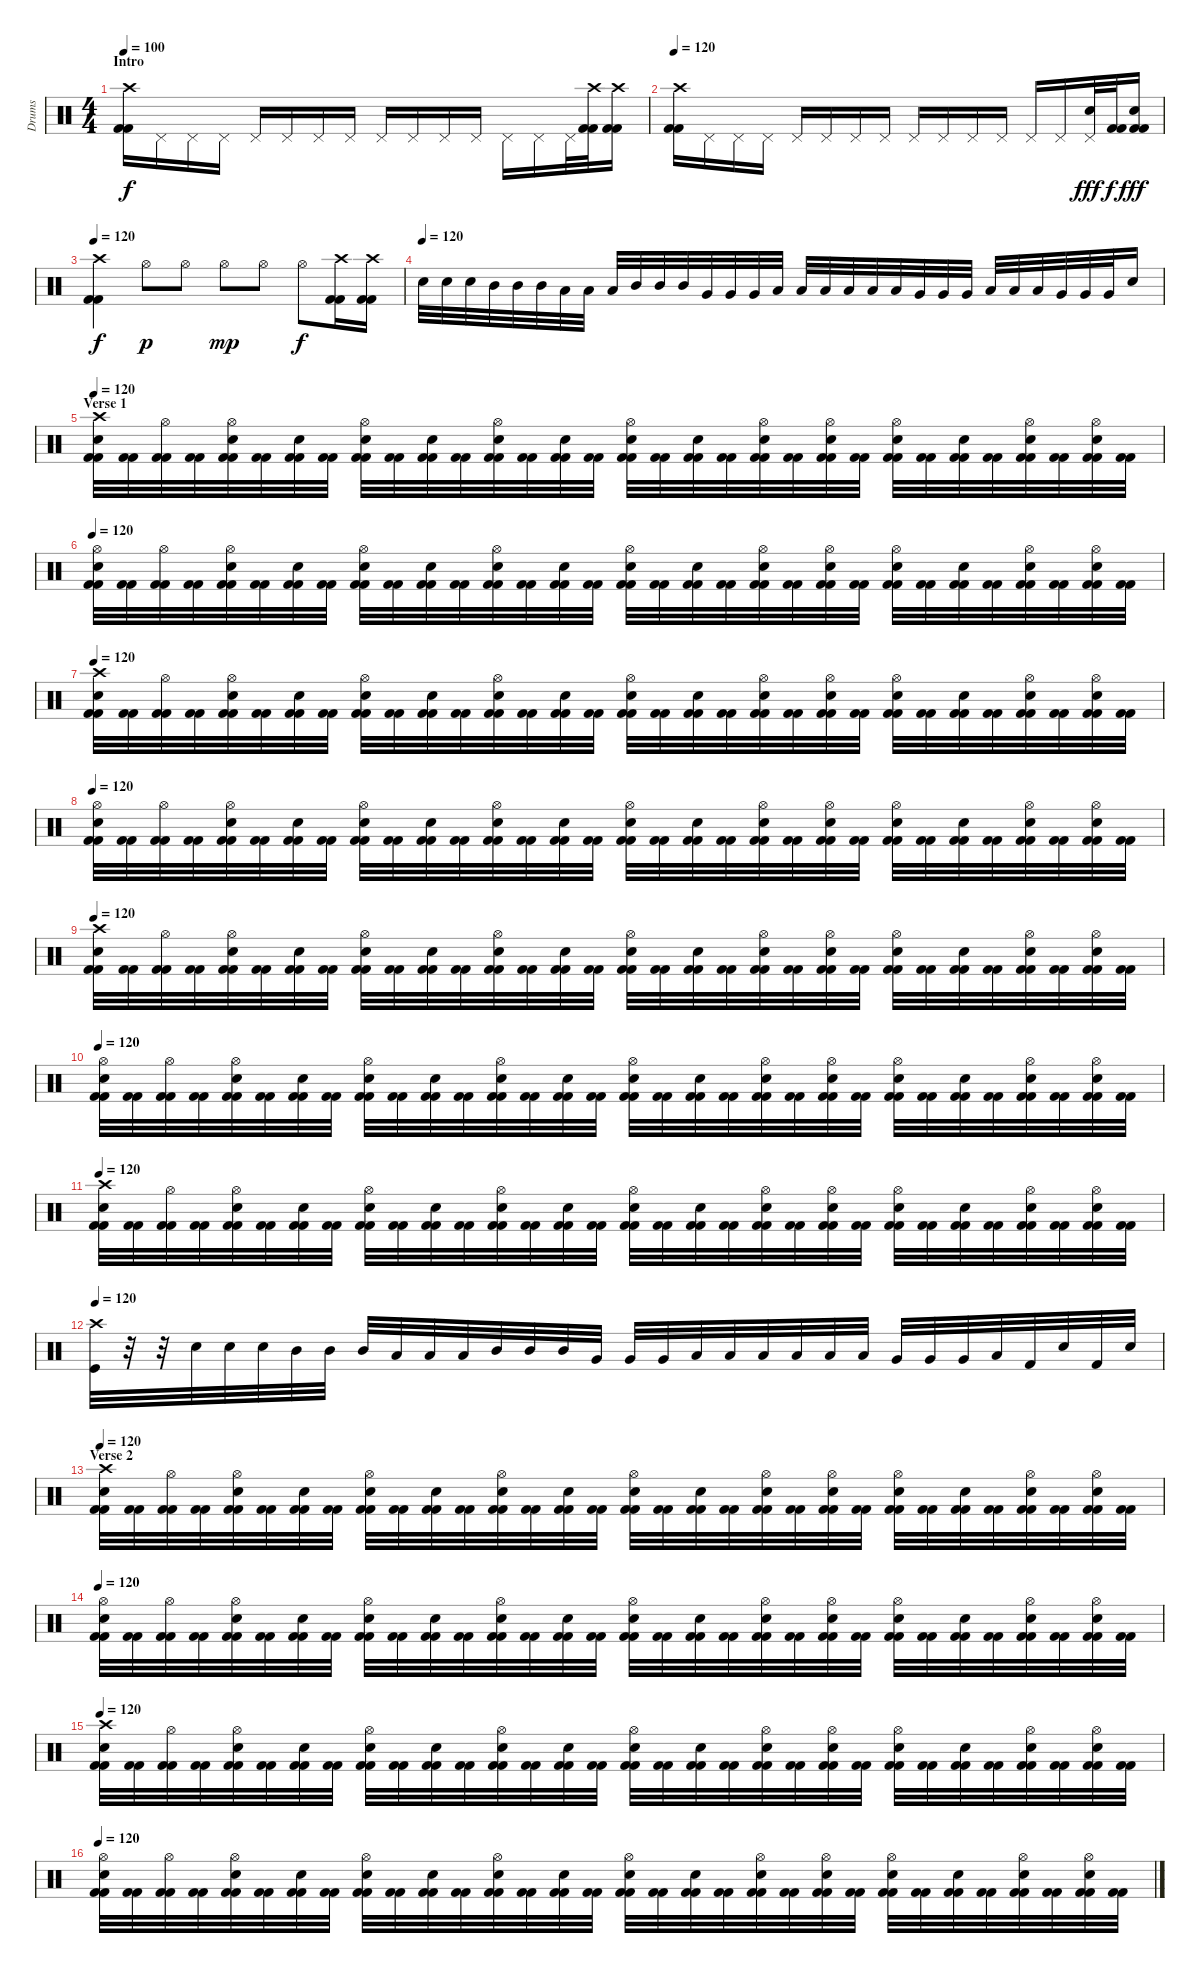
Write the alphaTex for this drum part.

\track ("Drums" "Drums") {instrument percussion}
\staff {score}
\articulation defaults
\ts (4 4)
\section ("" "Intro")
\tempo 100
\tempo 120
\tempo 100
\clef neutral
\ks c
("Crash high (hit)" "Kick (hit) 2" "Kick (hit) 2").16{dy f} "Pedal Hi-Hat (hit)".16 "Pedal Hi-Hat (hit)".16 "Pedal Hi-Hat (hit)".16 "Pedal Hi-Hat (hit)".16 "Pedal Hi-Hat (hit)".16 "Pedal Hi-Hat (hit)".16 "Pedal Hi-Hat (hit)".16 "Pedal Hi-Hat (hit)".16 "Pedal Hi-Hat (hit)".16 "Pedal Hi-Hat (hit)".16 "Pedal Hi-Hat (hit)".16 "Pedal Hi-Hat (hit)".16 "Pedal Hi-Hat (hit)".16 "Pedal Hi-Hat (hit)".32 ("Crash high (hit)" "Kick (hit) 2" "Kick (hit) 2").32 ("Crash high (hit)" "Kick (hit) 2" "Kick (hit) 2").16 |
\tempo 120
("Crash high (hit)" "Kick (hit) 2" "Kick (hit) 2").16 "Pedal Hi-Hat (hit)".16 "Pedal Hi-Hat (hit)".16 "Pedal Hi-Hat (hit)".16 "Pedal Hi-Hat (hit)".16 "Pedal Hi-Hat (hit)".16 "Pedal Hi-Hat (hit)".16 "Pedal Hi-Hat (hit)".16 "Pedal Hi-Hat (hit)".16 "Pedal Hi-Hat (hit)".16 "Pedal Hi-Hat (hit)".16 "Pedal Hi-Hat (hit)".16 "Pedal Hi-Hat (hit)".16 "Pedal Hi-Hat (hit)".16 ("Pedal Hi-Hat (hit)" "Electric Snare (hit)").32{dy fff} ("Kick (hit) 2" "Kick (hit) 2").32{dy f} ("Electric Snare (hit)" "Kick (hit) 2" "Kick (hit) 2").16{dy fff} |
\tempo 120
("Crash high (hit)" "Kick (hit) 2" "Kick (hit) 2").4{dy f} "Hi-Hat (open)".8{dy p} "Hi-Hat (open)".8 "Hi-Hat (open)".8{dy mp} "Hi-Hat (open)".8 "Hi-Hat (open)".8{dy f} ("Crash high (hit)" "Kick (hit) 2" "Kick (hit) 2").16 ("Crash high (hit)" "Kick (hit) 2" "Kick (hit) 2").16 |
\tempo (120)
"Electric Snare (hit)".32 "Electric Snare (hit)".32 "Electric Snare (hit)".32 "Mid Tom (hit)".32 "Mid Tom (hit)".32 "Mid Tom (hit)".32 "Low Tom (hit)".32 "Low Tom (hit)".32 "Low Tom (hit)".32 "Mid Tom (hit)".32 "Mid Tom (hit)".32 "Mid Tom (hit)".32 "Very Low Tom (hit)".32 "Very Low Tom (hit)".32 "Very Low Tom (hit)".32 "Low Tom (hit)".32 "Low Tom (hit)".32 "Low Tom (hit)".32 "Low Floor Tom (hit)".32 "Low Floor Tom (hit)".32 "Low Floor Tom (hit)".32 "Very Low Tom (hit)".32 "Very Low Tom (hit)".32 "Very Low Tom (hit)".32 "Low Floor Tom (hit)".32 "Low Floor Tom (hit)".32 "Low Floor Tom (hit)".32 "Very Low Tom (hit)".32 "Very Low Tom (hit)".32 "Very Low Tom (hit)".32 "Electric Snare (hit)".16 |
\section ("" "Verse 1")
\tempo 120
("Crash high (hit)" "Electric Snare (hit)" "Kick (hit) 2" "Kick (hit) 2").32 ("Kick (hit) 2" "Kick (hit) 2").32 ("Hi-Hat (open)" "Kick (hit) 2" "Kick (hit) 2").32 ("Kick (hit) 2" "Kick (hit) 2").32 ("Hi-Hat (open)" "Electric Snare (hit)" "Kick (hit) 2" "Kick (hit) 2").32 ("Kick (hit) 2" "Kick (hit) 2").32 ("Electric Snare (hit)" "Kick (hit) 2" "Kick (hit) 2").32 ("Kick (hit) 2" "Kick (hit) 2").32 ("Hi-Hat (open)" "Electric Snare (hit)" "Kick (hit) 2" "Kick (hit) 2").32 ("Kick (hit) 2" "Kick (hit) 2").32 ("Electric Snare (hit)" "Kick (hit) 2" "Kick (hit) 2").32 ("Kick (hit) 2" "Kick (hit) 2").32 ("Hi-Hat (open)" "Electric Snare (hit)" "Kick (hit) 2" "Kick (hit) 2").32 ("Kick (hit) 2" "Kick (hit) 2").32 ("Electric Snare (hit)" "Kick (hit) 2" "Kick (hit) 2").32 ("Kick (hit) 2" "Kick (hit) 2").32 ("Hi-Hat (open)" "Electric Snare (hit)" "Kick (hit) 2" "Kick (hit) 2").32 ("Kick (hit) 2" "Kick (hit) 2").32 ("Electric Snare (hit)" "Kick (hit) 2" "Kick (hit) 2").32 ("Kick (hit) 2" "Kick (hit) 2").32 ("Hi-Hat (open)" "Electric Snare (hit)" "Kick (hit) 2" "Kick (hit) 2").32 ("Kick (hit) 2" "Kick (hit) 2").32 ("Hi-Hat (open)" "Electric Snare (hit)" "Kick (hit) 2" "Kick (hit) 2").32 ("Kick (hit) 2" "Kick (hit) 2").32 ("Hi-Hat (open)" "Electric Snare (hit)" "Kick (hit) 2" "Kick (hit) 2").32 ("Kick (hit) 2" "Kick (hit) 2").32 ("Electric Snare (hit)" "Kick (hit) 2" "Kick (hit) 2").32 ("Kick (hit) 2" "Kick (hit) 2").32 ("Hi-Hat (open)" "Electric Snare (hit)" "Kick (hit) 2" "Kick (hit) 2").32 ("Kick (hit) 2" "Kick (hit) 2").32 ("Hi-Hat (open)" "Electric Snare (hit)" "Kick (hit) 2" "Kick (hit) 2").32 ("Kick (hit) 2" "Kick (hit) 2").32 |
\tempo 120
("Hi-Hat (open)" "Electric Snare (hit)" "Kick (hit) 2" "Kick (hit) 2").32 ("Kick (hit) 2" "Kick (hit) 2").32 ("Hi-Hat (open)" "Kick (hit) 2" "Kick (hit) 2").32 ("Kick (hit) 2" "Kick (hit) 2").32 ("Hi-Hat (open)" "Electric Snare (hit)" "Kick (hit) 2" "Kick (hit) 2").32 ("Kick (hit) 2" "Kick (hit) 2").32 ("Electric Snare (hit)" "Kick (hit) 2" "Kick (hit) 2").32 ("Kick (hit) 2" "Kick (hit) 2").32 ("Hi-Hat (open)" "Electric Snare (hit)" "Kick (hit) 2" "Kick (hit) 2").32 ("Kick (hit) 2" "Kick (hit) 2").32 ("Electric Snare (hit)" "Kick (hit) 2" "Kick (hit) 2").32 ("Kick (hit) 2" "Kick (hit) 2").32 ("Hi-Hat (open)" "Electric Snare (hit)" "Kick (hit) 2" "Kick (hit) 2").32 ("Kick (hit) 2" "Kick (hit) 2").32 ("Electric Snare (hit)" "Kick (hit) 2" "Kick (hit) 2").32 ("Kick (hit) 2" "Kick (hit) 2").32 ("Hi-Hat (open)" "Electric Snare (hit)" "Kick (hit) 2" "Kick (hit) 2").32 ("Kick (hit) 2" "Kick (hit) 2").32 ("Electric Snare (hit)" "Kick (hit) 2" "Kick (hit) 2").32 ("Kick (hit) 2" "Kick (hit) 2").32 ("Hi-Hat (open)" "Electric Snare (hit)" "Kick (hit) 2" "Kick (hit) 2").32 ("Kick (hit) 2" "Kick (hit) 2").32 ("Hi-Hat (open)" "Electric Snare (hit)" "Kick (hit) 2" "Kick (hit) 2").32 ("Kick (hit) 2" "Kick (hit) 2").32 ("Hi-Hat (open)" "Electric Snare (hit)" "Kick (hit) 2" "Kick (hit) 2").32 ("Kick (hit) 2" "Kick (hit) 2").32 ("Electric Snare (hit)" "Kick (hit) 2" "Kick (hit) 2").32 ("Kick (hit) 2" "Kick (hit) 2").32 ("Hi-Hat (open)" "Electric Snare (hit)" "Kick (hit) 2" "Kick (hit) 2").32 ("Kick (hit) 2" "Kick (hit) 2").32 ("Hi-Hat (open)" "Electric Snare (hit)" "Kick (hit) 2" "Kick (hit) 2").32 ("Kick (hit) 2" "Kick (hit) 2").32 |
\tempo 120
("Crash high (hit)" "Electric Snare (hit)" "Kick (hit) 2" "Kick (hit) 2").32 ("Kick (hit) 2" "Kick (hit) 2").32 ("Hi-Hat (open)" "Kick (hit) 2" "Kick (hit) 2").32 ("Kick (hit) 2" "Kick (hit) 2").32 ("Hi-Hat (open)" "Electric Snare (hit)" "Kick (hit) 2" "Kick (hit) 2").32 ("Kick (hit) 2" "Kick (hit) 2").32 ("Electric Snare (hit)" "Kick (hit) 2" "Kick (hit) 2").32 ("Kick (hit) 2" "Kick (hit) 2").32 ("Hi-Hat (open)" "Electric Snare (hit)" "Kick (hit) 2" "Kick (hit) 2").32 ("Kick (hit) 2" "Kick (hit) 2").32 ("Electric Snare (hit)" "Kick (hit) 2" "Kick (hit) 2").32 ("Kick (hit) 2" "Kick (hit) 2").32 ("Hi-Hat (open)" "Electric Snare (hit)" "Kick (hit) 2" "Kick (hit) 2").32 ("Kick (hit) 2" "Kick (hit) 2").32 ("Electric Snare (hit)" "Kick (hit) 2" "Kick (hit) 2").32 ("Kick (hit) 2" "Kick (hit) 2").32 ("Hi-Hat (open)" "Electric Snare (hit)" "Kick (hit) 2" "Kick (hit) 2").32 ("Kick (hit) 2" "Kick (hit) 2").32 ("Electric Snare (hit)" "Kick (hit) 2" "Kick (hit) 2").32 ("Kick (hit) 2" "Kick (hit) 2").32 ("Hi-Hat (open)" "Electric Snare (hit)" "Kick (hit) 2" "Kick (hit) 2").32 ("Kick (hit) 2" "Kick (hit) 2").32 ("Hi-Hat (open)" "Electric Snare (hit)" "Kick (hit) 2" "Kick (hit) 2").32 ("Kick (hit) 2" "Kick (hit) 2").32 ("Hi-Hat (open)" "Electric Snare (hit)" "Kick (hit) 2" "Kick (hit) 2").32 ("Kick (hit) 2" "Kick (hit) 2").32 ("Electric Snare (hit)" "Kick (hit) 2" "Kick (hit) 2").32 ("Kick (hit) 2" "Kick (hit) 2").32 ("Hi-Hat (open)" "Electric Snare (hit)" "Kick (hit) 2" "Kick (hit) 2").32 ("Kick (hit) 2" "Kick (hit) 2").32 ("Hi-Hat (open)" "Electric Snare (hit)" "Kick (hit) 2" "Kick (hit) 2").32 ("Kick (hit) 2" "Kick (hit) 2").32 |
\tempo 120
("Hi-Hat (open)" "Electric Snare (hit)" "Kick (hit) 2" "Kick (hit) 2").32 ("Kick (hit) 2" "Kick (hit) 2").32 ("Hi-Hat (open)" "Kick (hit) 2" "Kick (hit) 2").32 ("Kick (hit) 2" "Kick (hit) 2").32 ("Hi-Hat (open)" "Electric Snare (hit)" "Kick (hit) 2" "Kick (hit) 2").32 ("Kick (hit) 2" "Kick (hit) 2").32 ("Electric Snare (hit)" "Kick (hit) 2" "Kick (hit) 2").32 ("Kick (hit) 2" "Kick (hit) 2").32 ("Hi-Hat (open)" "Electric Snare (hit)" "Kick (hit) 2" "Kick (hit) 2").32 ("Kick (hit) 2" "Kick (hit) 2").32 ("Electric Snare (hit)" "Kick (hit) 2" "Kick (hit) 2").32 ("Kick (hit) 2" "Kick (hit) 2").32 ("Hi-Hat (open)" "Electric Snare (hit)" "Kick (hit) 2" "Kick (hit) 2").32 ("Kick (hit) 2" "Kick (hit) 2").32 ("Electric Snare (hit)" "Kick (hit) 2" "Kick (hit) 2").32 ("Kick (hit) 2" "Kick (hit) 2").32 ("Hi-Hat (open)" "Electric Snare (hit)" "Kick (hit) 2" "Kick (hit) 2").32 ("Kick (hit) 2" "Kick (hit) 2").32 ("Electric Snare (hit)" "Kick (hit) 2" "Kick (hit) 2").32 ("Kick (hit) 2" "Kick (hit) 2").32 ("Hi-Hat (open)" "Electric Snare (hit)" "Kick (hit) 2" "Kick (hit) 2").32 ("Kick (hit) 2" "Kick (hit) 2").32 ("Hi-Hat (open)" "Electric Snare (hit)" "Kick (hit) 2" "Kick (hit) 2").32 ("Kick (hit) 2" "Kick (hit) 2").32 ("Hi-Hat (open)" "Electric Snare (hit)" "Kick (hit) 2" "Kick (hit) 2").32 ("Kick (hit) 2" "Kick (hit) 2").32 ("Electric Snare (hit)" "Kick (hit) 2" "Kick (hit) 2").32 ("Kick (hit) 2" "Kick (hit) 2").32 ("Hi-Hat (open)" "Electric Snare (hit)" "Kick (hit) 2" "Kick (hit) 2").32 ("Kick (hit) 2" "Kick (hit) 2").32 ("Hi-Hat (open)" "Electric Snare (hit)" "Kick (hit) 2" "Kick (hit) 2").32 ("Kick (hit) 2" "Kick (hit) 2").32 |
\tempo 120
("Crash high (hit)" "Electric Snare (hit)" "Kick (hit) 2" "Kick (hit) 2").32 ("Kick (hit) 2" "Kick (hit) 2").32 ("Hi-Hat (open)" "Kick (hit) 2" "Kick (hit) 2").32 ("Kick (hit) 2" "Kick (hit) 2").32 ("Hi-Hat (open)" "Electric Snare (hit)" "Kick (hit) 2" "Kick (hit) 2").32 ("Kick (hit) 2" "Kick (hit) 2").32 ("Electric Snare (hit)" "Kick (hit) 2" "Kick (hit) 2").32 ("Kick (hit) 2" "Kick (hit) 2").32 ("Hi-Hat (open)" "Electric Snare (hit)" "Kick (hit) 2" "Kick (hit) 2").32 ("Kick (hit) 2" "Kick (hit) 2").32 ("Electric Snare (hit)" "Kick (hit) 2" "Kick (hit) 2").32 ("Kick (hit) 2" "Kick (hit) 2").32 ("Hi-Hat (open)" "Electric Snare (hit)" "Kick (hit) 2" "Kick (hit) 2").32 ("Kick (hit) 2" "Kick (hit) 2").32 ("Electric Snare (hit)" "Kick (hit) 2" "Kick (hit) 2").32 ("Kick (hit) 2" "Kick (hit) 2").32 ("Hi-Hat (open)" "Electric Snare (hit)" "Kick (hit) 2" "Kick (hit) 2").32 ("Kick (hit) 2" "Kick (hit) 2").32 ("Electric Snare (hit)" "Kick (hit) 2" "Kick (hit) 2").32 ("Kick (hit) 2" "Kick (hit) 2").32 ("Hi-Hat (open)" "Electric Snare (hit)" "Kick (hit) 2" "Kick (hit) 2").32 ("Kick (hit) 2" "Kick (hit) 2").32 ("Hi-Hat (open)" "Electric Snare (hit)" "Kick (hit) 2" "Kick (hit) 2").32 ("Kick (hit) 2" "Kick (hit) 2").32 ("Hi-Hat (open)" "Electric Snare (hit)" "Kick (hit) 2" "Kick (hit) 2").32 ("Kick (hit) 2" "Kick (hit) 2").32 ("Electric Snare (hit)" "Kick (hit) 2" "Kick (hit) 2").32 ("Kick (hit) 2" "Kick (hit) 2").32 ("Hi-Hat (open)" "Electric Snare (hit)" "Kick (hit) 2" "Kick (hit) 2").32 ("Kick (hit) 2" "Kick (hit) 2").32 ("Hi-Hat (open)" "Electric Snare (hit)" "Kick (hit) 2" "Kick (hit) 2").32 ("Kick (hit) 2" "Kick (hit) 2").32 |
\tempo 120
("Hi-Hat (open)" "Electric Snare (hit)" "Kick (hit) 2" "Kick (hit) 2").32 ("Kick (hit) 2" "Kick (hit) 2").32 ("Hi-Hat (open)" "Kick (hit) 2" "Kick (hit) 2").32 ("Kick (hit) 2" "Kick (hit) 2").32 ("Hi-Hat (open)" "Electric Snare (hit)" "Kick (hit) 2" "Kick (hit) 2").32 ("Kick (hit) 2" "Kick (hit) 2").32 ("Electric Snare (hit)" "Kick (hit) 2" "Kick (hit) 2").32 ("Kick (hit) 2" "Kick (hit) 2").32 ("Hi-Hat (open)" "Electric Snare (hit)" "Kick (hit) 2" "Kick (hit) 2").32 ("Kick (hit) 2" "Kick (hit) 2").32 ("Electric Snare (hit)" "Kick (hit) 2" "Kick (hit) 2").32 ("Kick (hit) 2" "Kick (hit) 2").32 ("Hi-Hat (open)" "Electric Snare (hit)" "Kick (hit) 2" "Kick (hit) 2").32 ("Kick (hit) 2" "Kick (hit) 2").32 ("Electric Snare (hit)" "Kick (hit) 2" "Kick (hit) 2").32 ("Kick (hit) 2" "Kick (hit) 2").32 ("Hi-Hat (open)" "Electric Snare (hit)" "Kick (hit) 2" "Kick (hit) 2").32 ("Kick (hit) 2" "Kick (hit) 2").32 ("Electric Snare (hit)" "Kick (hit) 2" "Kick (hit) 2").32 ("Kick (hit) 2" "Kick (hit) 2").32 ("Hi-Hat (open)" "Electric Snare (hit)" "Kick (hit) 2" "Kick (hit) 2").32 ("Kick (hit) 2" "Kick (hit) 2").32 ("Hi-Hat (open)" "Electric Snare (hit)" "Kick (hit) 2" "Kick (hit) 2").32 ("Kick (hit) 2" "Kick (hit) 2").32 ("Hi-Hat (open)" "Electric Snare (hit)" "Kick (hit) 2" "Kick (hit) 2").32 ("Kick (hit) 2" "Kick (hit) 2").32 ("Electric Snare (hit)" "Kick (hit) 2" "Kick (hit) 2").32 ("Kick (hit) 2" "Kick (hit) 2").32 ("Hi-Hat (open)" "Electric Snare (hit)" "Kick (hit) 2" "Kick (hit) 2").32 ("Kick (hit) 2" "Kick (hit) 2").32 ("Hi-Hat (open)" "Electric Snare (hit)" "Kick (hit) 2" "Kick (hit) 2").32 ("Kick (hit) 2" "Kick (hit) 2").32 |
\tempo 120
("Crash high (hit)" "Electric Snare (hit)" "Kick (hit) 2" "Kick (hit) 2").32 ("Kick (hit) 2" "Kick (hit) 2").32 ("Hi-Hat (open)" "Kick (hit) 2" "Kick (hit) 2").32 ("Kick (hit) 2" "Kick (hit) 2").32 ("Hi-Hat (open)" "Electric Snare (hit)" "Kick (hit) 2" "Kick (hit) 2").32 ("Kick (hit) 2" "Kick (hit) 2").32 ("Electric Snare (hit)" "Kick (hit) 2" "Kick (hit) 2").32 ("Kick (hit) 2" "Kick (hit) 2").32 ("Hi-Hat (open)" "Electric Snare (hit)" "Kick (hit) 2" "Kick (hit) 2").32 ("Kick (hit) 2" "Kick (hit) 2").32 ("Electric Snare (hit)" "Kick (hit) 2" "Kick (hit) 2").32 ("Kick (hit) 2" "Kick (hit) 2").32 ("Hi-Hat (open)" "Electric Snare (hit)" "Kick (hit) 2" "Kick (hit) 2").32 ("Kick (hit) 2" "Kick (hit) 2").32 ("Electric Snare (hit)" "Kick (hit) 2" "Kick (hit) 2").32 ("Kick (hit) 2" "Kick (hit) 2").32 ("Hi-Hat (open)" "Electric Snare (hit)" "Kick (hit) 2" "Kick (hit) 2").32 ("Kick (hit) 2" "Kick (hit) 2").32 ("Electric Snare (hit)" "Kick (hit) 2" "Kick (hit) 2").32 ("Kick (hit) 2" "Kick (hit) 2").32 ("Hi-Hat (open)" "Electric Snare (hit)" "Kick (hit) 2" "Kick (hit) 2").32 ("Kick (hit) 2" "Kick (hit) 2").32 ("Hi-Hat (open)" "Electric Snare (hit)" "Kick (hit) 2" "Kick (hit) 2").32 ("Kick (hit) 2" "Kick (hit) 2").32 ("Hi-Hat (open)" "Electric Snare (hit)" "Kick (hit) 2" "Kick (hit) 2").32 ("Kick (hit) 2" "Kick (hit) 2").32 ("Electric Snare (hit)" "Kick (hit) 2" "Kick (hit) 2").32 ("Kick (hit) 2" "Kick (hit) 2").32 ("Hi-Hat (open)" "Electric Snare (hit)" "Kick (hit) 2" "Kick (hit) 2").32 ("Kick (hit) 2" "Kick (hit) 2").32 ("Hi-Hat (open)" "Electric Snare (hit)" "Kick (hit) 2" "Kick (hit) 2").32 ("Kick (hit) 2" "Kick (hit) 2").32 |
\tempo 120
("Crash high (hit)" "Kick (hit)").32 r.32 r.32 "Electric Snare (hit)".32 "Electric Snare (hit)".32 "Electric Snare (hit)".32 "Mid Tom (hit)".32 "Mid Tom (hit)".32 "Mid Tom (hit)".32 "Low Tom (hit)".32 "Low Tom (hit)".32 "Low Tom (hit)".32 "Mid Tom (hit)".32 "Mid Tom (hit)".32 "Mid Tom (hit)".32 "Very Low Tom (hit)".32 "Very Low Tom (hit)".32 "Very Low Tom (hit)".32 "Low Tom (hit)".32 "Low Tom (hit)".32 "Low Tom (hit)".32 "Low Floor Tom (hit)".32 "Low Floor Tom (hit)".32 "Low Floor Tom (hit)".32 "Very Low Tom (hit)".32 "Very Low Tom (hit)".32 "Very Low Tom (hit)".32 "Low Floor Tom (hit)".32 "Kick (hit) 2".32 "Electric Snare (hit)".32 "Kick (hit) 2".32 "Electric Snare (hit)".32 |
\section ("" "Verse 2")
\tempo 120
("Crash high (hit)" "Electric Snare (hit)" "Kick (hit) 2" "Kick (hit) 2").32 ("Kick (hit) 2" "Kick (hit) 2").32 ("Hi-Hat (open)" "Kick (hit) 2" "Kick (hit) 2").32 ("Kick (hit) 2" "Kick (hit) 2").32 ("Hi-Hat (open)" "Electric Snare (hit)" "Kick (hit) 2" "Kick (hit) 2").32 ("Kick (hit) 2" "Kick (hit) 2").32 ("Electric Snare (hit)" "Kick (hit) 2" "Kick (hit) 2").32 ("Kick (hit) 2" "Kick (hit) 2").32 ("Hi-Hat (open)" "Electric Snare (hit)" "Kick (hit) 2" "Kick (hit) 2").32 ("Kick (hit) 2" "Kick (hit) 2").32 ("Electric Snare (hit)" "Kick (hit) 2" "Kick (hit) 2").32 ("Kick (hit) 2" "Kick (hit) 2").32 ("Hi-Hat (open)" "Electric Snare (hit)" "Kick (hit) 2" "Kick (hit) 2").32 ("Kick (hit) 2" "Kick (hit) 2").32 ("Electric Snare (hit)" "Kick (hit) 2" "Kick (hit) 2").32 ("Kick (hit) 2" "Kick (hit) 2").32 ("Hi-Hat (open)" "Electric Snare (hit)" "Kick (hit) 2" "Kick (hit) 2").32 ("Kick (hit) 2" "Kick (hit) 2").32 ("Electric Snare (hit)" "Kick (hit) 2" "Kick (hit) 2").32 ("Kick (hit) 2" "Kick (hit) 2").32 ("Hi-Hat (open)" "Electric Snare (hit)" "Kick (hit) 2" "Kick (hit) 2").32 ("Kick (hit) 2" "Kick (hit) 2").32 ("Hi-Hat (open)" "Electric Snare (hit)" "Kick (hit) 2" "Kick (hit) 2").32 ("Kick (hit) 2" "Kick (hit) 2").32 ("Hi-Hat (open)" "Electric Snare (hit)" "Kick (hit) 2" "Kick (hit) 2").32 ("Kick (hit) 2" "Kick (hit) 2").32 ("Electric Snare (hit)" "Kick (hit) 2" "Kick (hit) 2").32 ("Kick (hit) 2" "Kick (hit) 2").32 ("Hi-Hat (open)" "Electric Snare (hit)" "Kick (hit) 2" "Kick (hit) 2").32 ("Kick (hit) 2" "Kick (hit) 2").32 ("Hi-Hat (open)" "Electric Snare (hit)" "Kick (hit) 2" "Kick (hit) 2").32 ("Kick (hit) 2" "Kick (hit) 2").32 |
\tempo 120
("Hi-Hat (open)" "Electric Snare (hit)" "Kick (hit) 2" "Kick (hit) 2").32 ("Kick (hit) 2" "Kick (hit) 2").32 ("Hi-Hat (open)" "Kick (hit) 2" "Kick (hit) 2").32 ("Kick (hit) 2" "Kick (hit) 2").32 ("Hi-Hat (open)" "Electric Snare (hit)" "Kick (hit) 2" "Kick (hit) 2").32 ("Kick (hit) 2" "Kick (hit) 2").32 ("Electric Snare (hit)" "Kick (hit) 2" "Kick (hit) 2").32 ("Kick (hit) 2" "Kick (hit) 2").32 ("Hi-Hat (open)" "Electric Snare (hit)" "Kick (hit) 2" "Kick (hit) 2").32 ("Kick (hit) 2" "Kick (hit) 2").32 ("Electric Snare (hit)" "Kick (hit) 2" "Kick (hit) 2").32 ("Kick (hit) 2" "Kick (hit) 2").32 ("Hi-Hat (open)" "Electric Snare (hit)" "Kick (hit) 2" "Kick (hit) 2").32 ("Kick (hit) 2" "Kick (hit) 2").32 ("Electric Snare (hit)" "Kick (hit) 2" "Kick (hit) 2").32 ("Kick (hit) 2" "Kick (hit) 2").32 ("Hi-Hat (open)" "Electric Snare (hit)" "Kick (hit) 2" "Kick (hit) 2").32 ("Kick (hit) 2" "Kick (hit) 2").32 ("Electric Snare (hit)" "Kick (hit) 2" "Kick (hit) 2").32 ("Kick (hit) 2" "Kick (hit) 2").32 ("Hi-Hat (open)" "Electric Snare (hit)" "Kick (hit) 2" "Kick (hit) 2").32 ("Kick (hit) 2" "Kick (hit) 2").32 ("Hi-Hat (open)" "Electric Snare (hit)" "Kick (hit) 2" "Kick (hit) 2").32 ("Kick (hit) 2" "Kick (hit) 2").32 ("Hi-Hat (open)" "Electric Snare (hit)" "Kick (hit) 2" "Kick (hit) 2").32 ("Kick (hit) 2" "Kick (hit) 2").32 ("Electric Snare (hit)" "Kick (hit) 2" "Kick (hit) 2").32 ("Kick (hit) 2" "Kick (hit) 2").32 ("Hi-Hat (open)" "Electric Snare (hit)" "Kick (hit) 2" "Kick (hit) 2").32 ("Kick (hit) 2" "Kick (hit) 2").32 ("Hi-Hat (open)" "Electric Snare (hit)" "Kick (hit) 2" "Kick (hit) 2").32 ("Kick (hit) 2" "Kick (hit) 2").32 |
\tempo 120
("Crash high (hit)" "Electric Snare (hit)" "Kick (hit) 2" "Kick (hit) 2").32 ("Kick (hit) 2" "Kick (hit) 2").32 ("Hi-Hat (open)" "Kick (hit) 2" "Kick (hit) 2").32 ("Kick (hit) 2" "Kick (hit) 2").32 ("Hi-Hat (open)" "Electric Snare (hit)" "Kick (hit) 2" "Kick (hit) 2").32 ("Kick (hit) 2" "Kick (hit) 2").32 ("Electric Snare (hit)" "Kick (hit) 2" "Kick (hit) 2").32 ("Kick (hit) 2" "Kick (hit) 2").32 ("Hi-Hat (open)" "Electric Snare (hit)" "Kick (hit) 2" "Kick (hit) 2").32 ("Kick (hit) 2" "Kick (hit) 2").32 ("Electric Snare (hit)" "Kick (hit) 2" "Kick (hit) 2").32 ("Kick (hit) 2" "Kick (hit) 2").32 ("Hi-Hat (open)" "Electric Snare (hit)" "Kick (hit) 2" "Kick (hit) 2").32 ("Kick (hit) 2" "Kick (hit) 2").32 ("Electric Snare (hit)" "Kick (hit) 2" "Kick (hit) 2").32 ("Kick (hit) 2" "Kick (hit) 2").32 ("Hi-Hat (open)" "Electric Snare (hit)" "Kick (hit) 2" "Kick (hit) 2").32 ("Kick (hit) 2" "Kick (hit) 2").32 ("Electric Snare (hit)" "Kick (hit) 2" "Kick (hit) 2").32 ("Kick (hit) 2" "Kick (hit) 2").32 ("Hi-Hat (open)" "Electric Snare (hit)" "Kick (hit) 2" "Kick (hit) 2").32 ("Kick (hit) 2" "Kick (hit) 2").32 ("Hi-Hat (open)" "Electric Snare (hit)" "Kick (hit) 2" "Kick (hit) 2").32 ("Kick (hit) 2" "Kick (hit) 2").32 ("Hi-Hat (open)" "Electric Snare (hit)" "Kick (hit) 2" "Kick (hit) 2").32 ("Kick (hit) 2" "Kick (hit) 2").32 ("Electric Snare (hit)" "Kick (hit) 2" "Kick (hit) 2").32 ("Kick (hit) 2" "Kick (hit) 2").32 ("Hi-Hat (open)" "Electric Snare (hit)" "Kick (hit) 2" "Kick (hit) 2").32 ("Kick (hit) 2" "Kick (hit) 2").32 ("Hi-Hat (open)" "Electric Snare (hit)" "Kick (hit) 2" "Kick (hit) 2").32 ("Kick (hit) 2" "Kick (hit) 2").32 |
\tempo 120
("Hi-Hat (open)" "Electric Snare (hit)" "Kick (hit) 2" "Kick (hit) 2").32 ("Kick (hit) 2" "Kick (hit) 2").32 ("Hi-Hat (open)" "Kick (hit) 2" "Kick (hit) 2").32 ("Kick (hit) 2" "Kick (hit) 2").32 ("Hi-Hat (open)" "Electric Snare (hit)" "Kick (hit) 2" "Kick (hit) 2").32 ("Kick (hit) 2" "Kick (hit) 2").32 ("Electric Snare (hit)" "Kick (hit) 2" "Kick (hit) 2").32 ("Kick (hit) 2" "Kick (hit) 2").32 ("Hi-Hat (open)" "Electric Snare (hit)" "Kick (hit) 2" "Kick (hit) 2").32 ("Kick (hit) 2" "Kick (hit) 2").32 ("Electric Snare (hit)" "Kick (hit) 2" "Kick (hit) 2").32 ("Kick (hit) 2" "Kick (hit) 2").32 ("Hi-Hat (open)" "Electric Snare (hit)" "Kick (hit) 2" "Kick (hit) 2").32 ("Kick (hit) 2" "Kick (hit) 2").32 ("Electric Snare (hit)" "Kick (hit) 2" "Kick (hit) 2").32 ("Kick (hit) 2" "Kick (hit) 2").32 ("Hi-Hat (open)" "Electric Snare (hit)" "Kick (hit) 2" "Kick (hit) 2").32 ("Kick (hit) 2" "Kick (hit) 2").32 ("Electric Snare (hit)" "Kick (hit) 2" "Kick (hit) 2").32 ("Kick (hit) 2" "Kick (hit) 2").32 ("Hi-Hat (open)" "Electric Snare (hit)" "Kick (hit) 2" "Kick (hit) 2").32 ("Kick (hit) 2" "Kick (hit) 2").32 ("Hi-Hat (open)" "Electric Snare (hit)" "Kick (hit) 2" "Kick (hit) 2").32 ("Kick (hit) 2" "Kick (hit) 2").32 ("Hi-Hat (open)" "Electric Snare (hit)" "Kick (hit) 2" "Kick (hit) 2").32 ("Kick (hit) 2" "Kick (hit) 2").32 ("Electric Snare (hit)" "Kick (hit) 2" "Kick (hit) 2").32 ("Kick (hit) 2" "Kick (hit) 2").32 ("Hi-Hat (open)" "Electric Snare (hit)" "Kick (hit) 2" "Kick (hit) 2").32 ("Kick (hit) 2" "Kick (hit) 2").32 ("Hi-Hat (open)" "Electric Snare (hit)" "Kick (hit) 2" "Kick (hit) 2").32 ("Kick (hit) 2" "Kick (hit) 2").32
